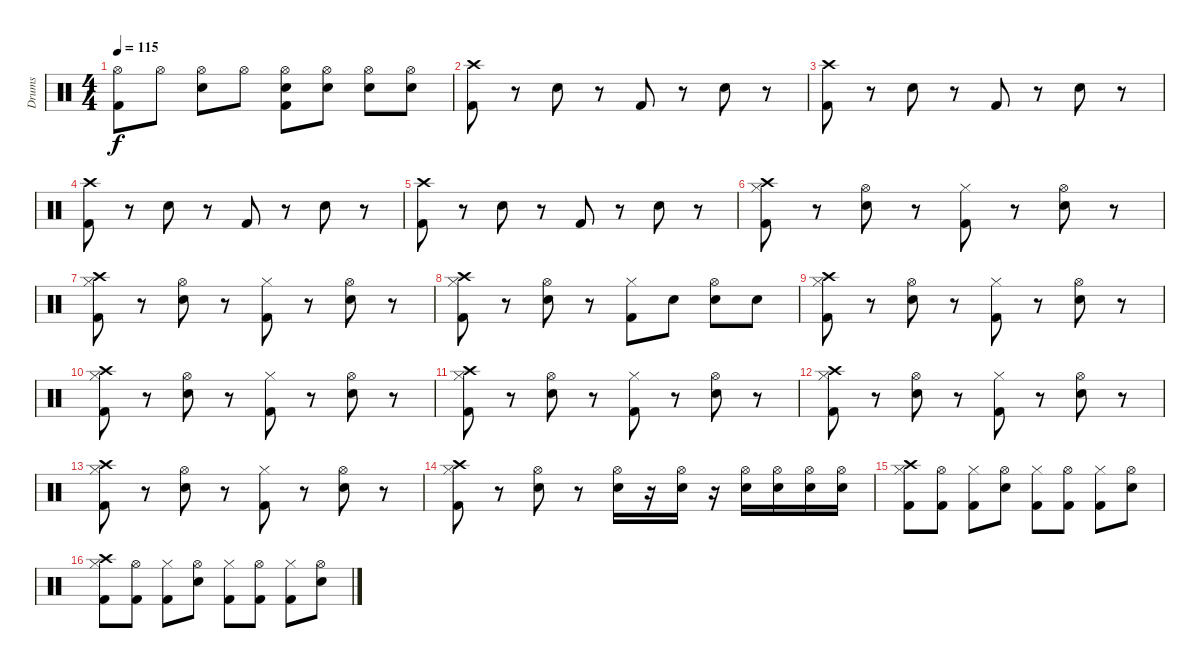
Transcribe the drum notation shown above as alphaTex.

\track ("Drums" "Drums") {instrument percussion}
\staff {score}
\articulation defaults
\ts (4 4)
\tempo 115
\clef neutral
\ks c
("Hi-Hat (open)" "Kick (hit) 2").8{dy f} "Hi-Hat (open)".8 ("Hi-Hat (open)" "Snare (hit) 2").8 "Hi-Hat (open)".8 ("Hi-Hat (open)" "Snare (hit) 2" "Kick (hit) 2").8 ("Hi-Hat (open)" "Snare (hit) 2").8 ("Hi-Hat (open)" "Snare (hit) 2").8 ("Hi-Hat (open)" "Snare (hit) 2").8 |
\section ("" "")
("Crash high (hit)" "Kick (hit) 2").8 r.8 "Snare (hit) 2".8 r.8 "Kick (hit) 2".8 r.8 "Snare (hit) 2".8 r.8 |
("Crash high (hit)" "Kick (hit) 2").8 r.8 "Snare (hit) 2".8 r.8 "Kick (hit) 2".8 r.8 "Snare (hit) 2".8 r.8 |
("Crash high (hit)" "Kick (hit) 2").8 r.8 "Snare (hit) 2".8 r.8 "Kick (hit) 2".8 r.8 "Snare (hit) 2".8 r.8 |
("Crash high (hit)" "Kick (hit) 2").8 r.8 "Snare (hit) 2".8 r.8 "Kick (hit) 2".8 r.8 "Snare (hit) 2".8 r.8 |
("Crash high (hit)" "Hi-Hat (closed)" "Kick (hit) 2").8 r.8 ("Hi-Hat (open)" "Snare (hit) 2").8 r.8 ("Hi-Hat (closed)" "Kick (hit) 2").8 r.8 ("Hi-Hat (open)" "Snare (hit) 2").8 r.8 |
("Crash high (hit)" "Hi-Hat (closed)" "Kick (hit) 2").8 r.8 ("Hi-Hat (open)" "Snare (hit) 2").8 r.8 ("Hi-Hat (closed)" "Kick (hit) 2").8 r.8 ("Hi-Hat (open)" "Snare (hit) 2").8 r.8 |
("Crash high (hit)" "Hi-Hat (closed)" "Kick (hit) 2").8 r.8 ("Hi-Hat (open)" "Snare (hit) 2").8 r.8 ("Hi-Hat (closed)" "Kick (hit) 2").8 "Snare (hit) 2".8 ("Hi-Hat (open)" "Snare (hit) 2").8 "Snare (hit) 2".8 |
("Crash high (hit)" "Hi-Hat (closed)" "Kick (hit) 2").8 r.8 ("Hi-Hat (open)" "Snare (hit) 2").8 r.8 ("Hi-Hat (closed)" "Kick (hit) 2").8 r.8 ("Hi-Hat (open)" "Snare (hit) 2").8 r.8 |
("Crash high (hit)" "Hi-Hat (closed)" "Kick (hit) 2").8 r.8 ("Hi-Hat (open)" "Snare (hit) 2").8 r.8 ("Hi-Hat (closed)" "Kick (hit) 2").8 r.8 ("Hi-Hat (open)" "Snare (hit) 2").8 r.8 |
("Crash high (hit)" "Hi-Hat (closed)" "Kick (hit) 2").8 r.8 ("Hi-Hat (open)" "Snare (hit) 2").8 r.8 ("Hi-Hat (closed)" "Kick (hit) 2").8 r.8 ("Hi-Hat (open)" "Snare (hit) 2").8 r.8 |
("Crash high (hit)" "Hi-Hat (closed)" "Kick (hit) 2").8 r.8 ("Hi-Hat (open)" "Snare (hit) 2").8 r.8 ("Hi-Hat (closed)" "Kick (hit) 2").8 r.8 ("Hi-Hat (open)" "Snare (hit) 2").8 r.8 |
("Crash high (hit)" "Hi-Hat (closed)" "Kick (hit) 2").8 r.8 ("Hi-Hat (open)" "Snare (hit) 2").8 r.8 ("Hi-Hat (closed)" "Kick (hit) 2").8 r.8 ("Hi-Hat (open)" "Snare (hit) 2").8 r.8 |
("Crash high (hit)" "Hi-Hat (closed)" "Kick (hit) 2").8 r.8 ("Hi-Hat (open)" "Snare (hit) 2").8 r.8 ("Hi-Hat (open)" "Snare (hit) 2").16 r.16 ("Hi-Hat (open)" "Snare (hit) 2").16 r.16 ("Hi-Hat (open)" "Snare (hit) 2").16 ("Hi-Hat (open)" "Snare (hit) 2").16 ("Hi-Hat (open)" "Snare (hit) 2").16 ("Hi-Hat (open)" "Snare (hit) 2").16 |
("Crash high (hit)" "Hi-Hat (closed)" "Kick (hit) 2").8 ("Hi-Hat (open)" "Kick (hit) 2").8 ("Hi-Hat (closed)" "Kick (hit) 2").8 ("Hi-Hat (open)" "Snare (hit) 2").8 ("Hi-Hat (closed)" "Kick (hit) 2").8 ("Hi-Hat (open)" "Kick (hit) 2").8 ("Hi-Hat (closed)" "Kick (hit) 2").8 ("Hi-Hat (open)" "Snare (hit) 2").8 |
("Crash high (hit)" "Hi-Hat (closed)" "Kick (hit) 2").8 ("Hi-Hat (open)" "Kick (hit) 2").8 ("Hi-Hat (closed)" "Kick (hit) 2").8 ("Hi-Hat (open)" "Snare (hit) 2").8 ("Hi-Hat (closed)" "Kick (hit) 2").8 ("Hi-Hat (open)" "Kick (hit) 2").8 ("Hi-Hat (closed)" "Kick (hit) 2").8 ("Hi-Hat (open)" "Snare (hit) 2").8
